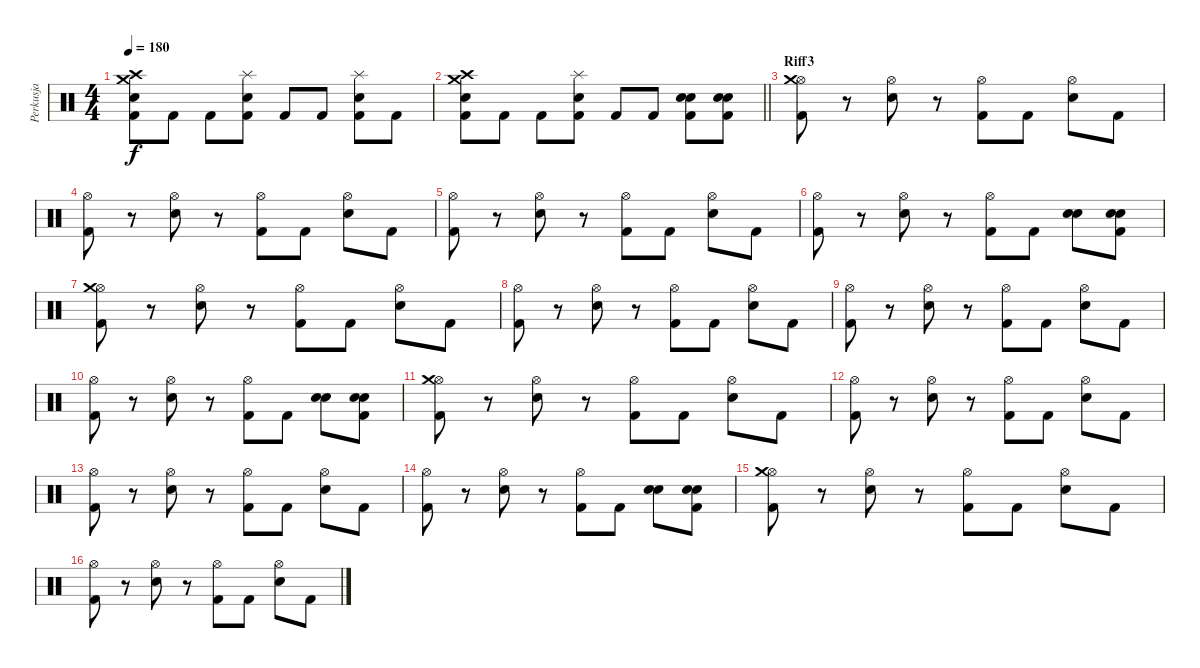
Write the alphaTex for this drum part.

\track ("Perkusja" "Perkusja") {instrument percussion}
\staff {score}
\articulation defaults
\ts (4 4)
\tempo 180
\clef neutral
\ks c
("Crash medium (hit)" "Crash high (hit)" "Electric Snare (hit)" "Kick (hit) 2").8{dy f} "Kick (hit) 2".8 "Kick (hit) 2".8 ("Splash (hit)" "Electric Snare (hit)" "Kick (hit) 2").8 "Kick (hit) 2".8 "Kick (hit) 2".8 ("Splash (hit)" "Electric Snare (hit)" "Kick (hit) 2").8 "Kick (hit) 2".8 |
\barLineRight lightlight
("Crash medium (hit)" "Crash high (hit)" "Electric Snare (hit)" "Kick (hit) 2").8 "Kick (hit) 2".8 "Kick (hit) 2".8 ("Splash (hit)" "Electric Snare (hit)" "Kick (hit) 2").8 "Kick (hit) 2".8 "Kick (hit) 2".8 ("Snare (hit) 2" "Electric Snare (hit)" "Kick (hit) 2").8 ("Snare (hit) 2" "Electric Snare (hit)" "Kick (hit) 2").8 |
\section ("" "Riff3")
("Hi-Hat (open)" "Crash medium (hit)" "Kick (hit) 2").8 r.8 ("Hi-Hat (open)" "Electric Snare (hit)").8 r.8 ("Hi-Hat (open)" "Kick (hit) 2").8 "Kick (hit) 2".8 ("Hi-Hat (open)" "Electric Snare (hit)").8 "Kick (hit) 2".8 |
("Hi-Hat (open)" "Kick (hit) 2").8 r.8 ("Hi-Hat (open)" "Electric Snare (hit)").8 r.8 ("Hi-Hat (open)" "Kick (hit) 2").8 "Kick (hit) 2".8 ("Hi-Hat (open)" "Electric Snare (hit)").8 "Kick (hit) 2".8 |
("Hi-Hat (open)" "Kick (hit) 2").8 r.8 ("Hi-Hat (open)" "Electric Snare (hit)").8 r.8 ("Hi-Hat (open)" "Kick (hit) 2").8 "Kick (hit) 2".8 ("Hi-Hat (open)" "Electric Snare (hit)").8 "Kick (hit) 2".8 |
("Hi-Hat (open)" "Kick (hit) 2").8 r.8 ("Hi-Hat (open)" "Electric Snare (hit)").8 r.8 ("Hi-Hat (open)" "Kick (hit) 2").8 "Kick (hit) 2".8 ("Snare (hit) 2" "Electric Snare (hit)").8 ("Snare (hit) 2" "Electric Snare (hit)" "Kick (hit) 2").8 |
("Hi-Hat (open)" "Crash medium (hit)" "Kick (hit) 2").8 r.8 ("Hi-Hat (open)" "Electric Snare (hit)").8 r.8 ("Hi-Hat (open)" "Kick (hit) 2").8 "Kick (hit) 2".8 ("Hi-Hat (open)" "Electric Snare (hit)").8 "Kick (hit) 2".8 |
("Hi-Hat (open)" "Kick (hit) 2").8 r.8 ("Hi-Hat (open)" "Electric Snare (hit)").8 r.8 ("Hi-Hat (open)" "Kick (hit) 2").8 "Kick (hit) 2".8 ("Hi-Hat (open)" "Electric Snare (hit)").8 "Kick (hit) 2".8 |
("Hi-Hat (open)" "Kick (hit) 2").8 r.8 ("Hi-Hat (open)" "Electric Snare (hit)").8 r.8 ("Hi-Hat (open)" "Kick (hit) 2").8 "Kick (hit) 2".8 ("Hi-Hat (open)" "Electric Snare (hit)").8 "Kick (hit) 2".8 |
("Hi-Hat (open)" "Kick (hit) 2").8 r.8 ("Hi-Hat (open)" "Electric Snare (hit)").8 r.8 ("Hi-Hat (open)" "Kick (hit) 2").8 "Kick (hit) 2".8 ("Snare (hit) 2" "Electric Snare (hit)").8 ("Snare (hit) 2" "Electric Snare (hit)" "Kick (hit) 2").8 |
("Hi-Hat (open)" "Crash medium (hit)" "Kick (hit) 2").8 r.8 ("Hi-Hat (open)" "Electric Snare (hit)").8 r.8 ("Hi-Hat (open)" "Kick (hit) 2").8 "Kick (hit) 2".8 ("Hi-Hat (open)" "Electric Snare (hit)").8 "Kick (hit) 2".8 |
("Hi-Hat (open)" "Kick (hit) 2").8 r.8 ("Hi-Hat (open)" "Electric Snare (hit)").8 r.8 ("Hi-Hat (open)" "Kick (hit) 2").8 "Kick (hit) 2".8 ("Hi-Hat (open)" "Electric Snare (hit)").8 "Kick (hit) 2".8 |
("Hi-Hat (open)" "Kick (hit) 2").8 r.8 ("Hi-Hat (open)" "Electric Snare (hit)").8 r.8 ("Hi-Hat (open)" "Kick (hit) 2").8 "Kick (hit) 2".8 ("Hi-Hat (open)" "Electric Snare (hit)").8 "Kick (hit) 2".8 |
("Hi-Hat (open)" "Kick (hit) 2").8 r.8 ("Hi-Hat (open)" "Electric Snare (hit)").8 r.8 ("Hi-Hat (open)" "Kick (hit) 2").8 "Kick (hit) 2".8 ("Snare (hit) 2" "Electric Snare (hit)").8 ("Snare (hit) 2" "Electric Snare (hit)" "Kick (hit) 2").8 |
("Hi-Hat (open)" "Crash medium (hit)" "Kick (hit) 2").8 r.8 ("Hi-Hat (open)" "Electric Snare (hit)").8 r.8 ("Hi-Hat (open)" "Kick (hit) 2").8 "Kick (hit) 2".8 ("Hi-Hat (open)" "Electric Snare (hit)").8 "Kick (hit) 2".8 |
("Hi-Hat (open)" "Kick (hit) 2").8 r.8 ("Hi-Hat (open)" "Electric Snare (hit)").8 r.8 ("Hi-Hat (open)" "Kick (hit) 2").8 "Kick (hit) 2".8 ("Hi-Hat (open)" "Electric Snare (hit)").8 "Kick (hit) 2".8
